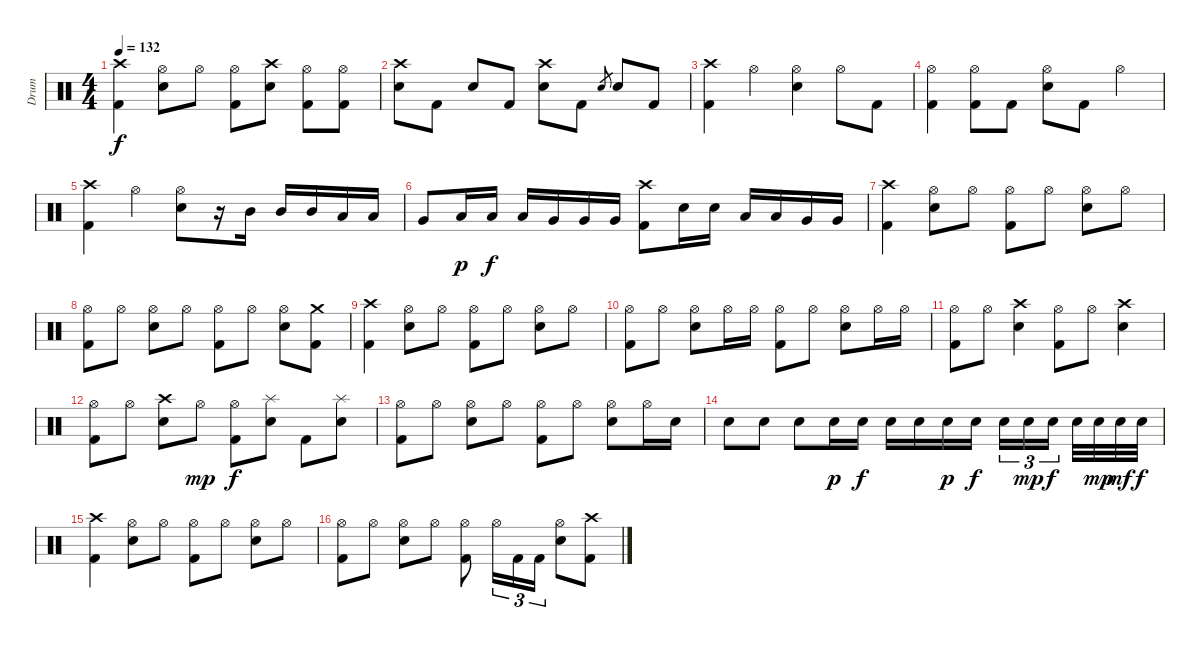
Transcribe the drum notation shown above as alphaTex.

\track ("Drum" "Drum") {instrument percussion}
\staff {score}
\articulation defaults
\ts (4 4)
\tempo 132
\clef neutral
\ks c
("Crash high (hit)" "Kick (hit) 2").4{dy f} ("Hi-Hat (open)" "Snare (hit) 2").8 "Hi-Hat (open)".8 ("Hi-Hat (open)" "Kick (hit) 2").8 ("Crash high (hit)" "Snare (hit) 2").8 ("Hi-Hat (open)" "Kick (hit) 2").8 ("Hi-Hat (open)" "Kick (hit) 2").8 |
("Crash high (hit)" "Snare (hit) 2").8 "Kick (hit) 2".8 "Snare (hit) 2".8 "Kick (hit) 2".8 ("Crash high (hit)" "Snare (hit) 2").8 "Kick (hit) 2".8 "Snare (hit) 2".8{gr} "Snare (hit) 2".8 "Kick (hit) 2".8 |
("Crash high (hit)" "Kick (hit) 2").4 "Hi-Hat (open)".4 ("Hi-Hat (open)" "Snare (hit) 2").4 "Hi-Hat (open)".8 "Kick (hit) 2".8 |
("Hi-Hat (open)" "Kick (hit) 2").4 ("Hi-Hat (open)" "Kick (hit) 2").8 "Kick (hit) 2".8 ("Hi-Hat (open)" "Snare (hit) 2").8 "Kick (hit) 2".8 "Hi-Hat (open)".4 |
\section ("" "")
("Crash high (hit)" "Kick (hit) 2").4 "Hi-Hat (open)".4 ("Hi-Hat (open)" "Snare (hit) 2").8 r.16 "Mid Tom (hit)".16 "Mid Tom (hit)".16 "Mid Tom (hit)".16 "Low Tom (hit)".16 "Low Tom (hit)".16 |
"Very Low Tom (hit)".8 "Low Tom (hit)".16{dy p} "Low Tom (hit)".16{dy f} "Low Tom (hit)".16 "Very Low Tom (hit)".16 "Very Low Tom (hit)".16 "Very Low Tom (hit)".16 ("Crash high (hit)" "Kick (hit) 2").8 "Snare (hit) 2".16 "Snare (hit) 2".16 "Low Tom (hit)".16 "Low Tom (hit)".16 "Very Low Tom (hit)".16 "Very Low Tom (hit)".16 |
("Crash high (hit)" "Kick (hit) 2").4 ("Hi-Hat (open)" "Snare (hit) 2").8 "Hi-Hat (open)".8 ("Hi-Hat (open)" "Kick (hit) 2").8 "Hi-Hat (open)".8 ("Hi-Hat (open)" "Snare (hit) 2").8 "Hi-Hat (open)".8 |
("Hi-Hat (open)" "Kick (hit) 2").8 "Hi-Hat (open)".8 ("Hi-Hat (open)" "Snare (hit) 2").8 "Hi-Hat (open)".8 ("Hi-Hat (open)" "Kick (hit) 2").8 "Hi-Hat (open)".8 ("Hi-Hat (open)" "Snare (hit) 2").8 ("Crash medium (hit)" "Kick (hit) 2").8 |
("Crash high (hit)" "Kick (hit) 2").4 ("Hi-Hat (open)" "Snare (hit) 2").8 "Hi-Hat (open)".8 ("Hi-Hat (open)" "Kick (hit) 2").8 "Hi-Hat (open)".8 ("Hi-Hat (open)" "Snare (hit) 2").8 "Hi-Hat (open)".8 |
("Hi-Hat (open)" "Kick (hit) 2").8 "Hi-Hat (open)".8 ("Hi-Hat (open)" "Snare (hit) 2").8 "Hi-Hat (open)".16 "Hi-Hat (open)".16 ("Hi-Hat (open)" "Kick (hit) 2").8 "Hi-Hat (open)".8 ("Hi-Hat (open)" "Snare (hit) 2").8 "Hi-Hat (open)".16 "Hi-Hat (open)".16 |
("Hi-Hat (open)" "Kick (hit) 2").8 "Hi-Hat (open)".8 ("Crash high (hit)" "Snare (hit) 2").4 ("Hi-Hat (open)" "Kick (hit) 2").8 "Hi-Hat (open)".8 ("Crash high (hit)" "Snare (hit) 2").4 |
("Hi-Hat (open)" "Kick (hit) 2").8 "Hi-Hat (open)".8 ("Crash high (hit)" "Snare (hit) 2").8 "Hi-Hat (open)".8{dy mp} ("Hi-Hat (open)" "Kick (hit) 2").8{dy f} ("Splash (hit)" "Snare (hit) 2").8 "Kick (hit) 2".8 ("Splash (hit)" "Snare (hit) 2").8 |
("Hi-Hat (open)" "Kick (hit) 2").8 "Hi-Hat (open)".8 ("Hi-Hat (open)" "Snare (hit) 2").8 "Hi-Hat (open)".8 ("Hi-Hat (open)" "Kick (hit) 2").8 "Hi-Hat (open)".8 ("Hi-Hat (open)" "Snare (hit) 2").8 "Hi-Hat (open)".16 "Snare (hit) 2".16 |
"Snare (hit) 2".8 "Snare (hit) 2".8 "Snare (hit) 2".8 "Snare (hit) 2".16{dy p} "Snare (hit) 2".16{dy f} "Snare (hit) 2".16 "Snare (hit) 2".16 "Snare (hit) 2".16{dy p} "Snare (hit) 2".16{dy f} "Snare (hit) 2".16{tu (3 2)} "Snare (hit) 2".16{tu (3 2) dy mp} "Snare (hit) 2".16{tu (3 2) dy f} "Snare (hit) 2".32 "Snare (hit) 2".32{dy mp} "Snare (hit) 2".32{dy mf} "Snare (hit) 2".32{dy f} |
("Crash high (hit)" "Kick (hit) 2").4 ("Hi-Hat (open)" "Snare (hit) 2").8 "Hi-Hat (open)".8 ("Hi-Hat (open)" "Kick (hit) 2").8 "Hi-Hat (open)".8 ("Hi-Hat (open)" "Snare (hit) 2").8 "Hi-Hat (open)".8 |
("Hi-Hat (open)" "Kick (hit) 2").8 "Hi-Hat (open)".8 ("Hi-Hat (open)" "Snare (hit) 2").8 "Hi-Hat (open)".8 ("Hi-Hat (open)" "Kick (hit) 2").8 "Hi-Hat (open)".16{tu (3 2)} "Kick (hit) 2".16{tu (3 2)} "Kick (hit) 2".16{tu (3 2)} ("Hi-Hat (open)" "Snare (hit) 2").8 ("Crash high (hit)" "Kick (hit) 2").8
